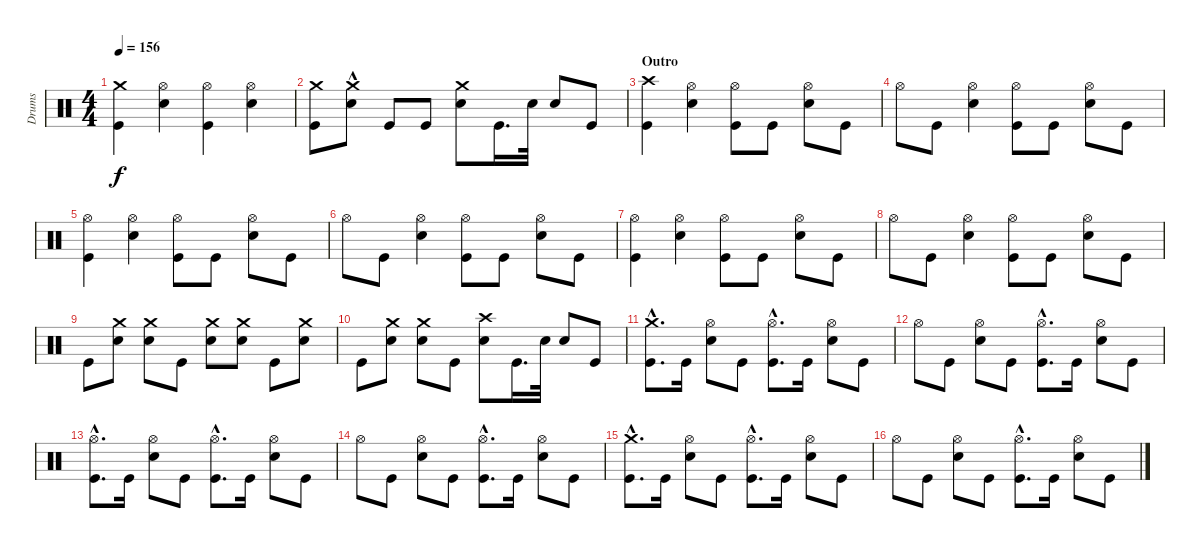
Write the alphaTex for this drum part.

\track ("Drums" "Drums") {instrument percussion}
\staff {score}
\articulation defaults
\ts (4 4)
\tempo 156
\clef neutral
\ks c
("Kick (hit)" "Crash medium (hit)").4{dy f} ("Electric Snare (hit)" "Hi-Hat (open)").4 ("Kick (hit)" "Hi-Hat (open)").4 ("Electric Snare (hit)" "Hi-Hat (open)").4 |
("Kick (hit)" "Crash medium (hit)").8 ("Electric Snare (hit)" "Crash medium (hit)"{hac}).8 "Kick (hit)".8 "Kick (hit)".8 ("Electric Snare (hit)" "Crash medium (hit)").8 "Kick (hit)".16{d} "Electric Snare (hit)".32 "Electric Snare (hit)".8 "Kick (hit)".8 |
\section ("" "Outro")
("Kick (hit)" "Crash high (hit)").4 ("Electric Snare (hit)" "Hi-Hat (open)").4 ("Kick (hit)" "Hi-Hat (open)").8 "Kick (hit)".8 ("Electric Snare (hit)" "Hi-Hat (open)").8 "Kick (hit)".8 |
"Hi-Hat (open)".8 "Kick (hit)".8 ("Electric Snare (hit)" "Hi-Hat (open)").4 ("Kick (hit)" "Hi-Hat (open)").8 "Kick (hit)".8 ("Electric Snare (hit)" "Hi-Hat (open)").8 "Kick (hit)".8 |
("Kick (hit)" "Hi-Hat (open)").4 ("Electric Snare (hit)" "Hi-Hat (open)").4 ("Kick (hit)" "Hi-Hat (open)").8 "Kick (hit)".8 ("Electric Snare (hit)" "Hi-Hat (open)").8 "Kick (hit)".8 |
"Hi-Hat (open)".8 "Kick (hit)".8 ("Electric Snare (hit)" "Hi-Hat (open)").4 ("Kick (hit)" "Hi-Hat (open)").8 "Kick (hit)".8 ("Electric Snare (hit)" "Hi-Hat (open)").8 "Kick (hit)".8 |
("Kick (hit)" "Hi-Hat (open)").4 ("Electric Snare (hit)" "Hi-Hat (open)").4 ("Kick (hit)" "Hi-Hat (open)").8 "Kick (hit)".8 ("Electric Snare (hit)" "Hi-Hat (open)").8 "Kick (hit)".8 |
"Hi-Hat (open)".8 "Kick (hit)".8 ("Electric Snare (hit)" "Hi-Hat (open)").4 ("Kick (hit)" "Hi-Hat (open)").8 "Kick (hit)".8 ("Electric Snare (hit)" "Hi-Hat (open)").8 "Kick (hit)".8 |
"Kick (hit)".8 ("Crash medium (hit)" "Electric Snare (hit)").8 ("Crash medium (hit)" "Electric Snare (hit)").8 "Kick (hit)".8 ("Crash medium (hit)" "Electric Snare (hit)").8 ("Crash medium (hit)" "Electric Snare (hit)").8 "Kick (hit)".8 ("Crash medium (hit)" "Electric Snare (hit)").8 |
"Kick (hit)".8 ("Crash medium (hit)" "Electric Snare (hit)").8 ("Crash medium (hit)" "Electric Snare (hit)").8 "Kick (hit)".8 ("Crash high (hit)" "Electric Snare (hit)").8 "Kick (hit)".16{d} "Electric Snare (hit)".32 "Electric Snare (hit)".8 "Kick (hit)".8 |
("Kick (hit)"{hac} "Crash medium (hit)").8{d} "Kick (hit)".16 ("Electric Snare (hit)" "Hi-Hat (open)").8 "Kick (hit)".8 ("Kick (hit)"{hac} "Hi-Hat (open)").8{d} "Kick (hit)".16 ("Electric Snare (hit)" "Hi-Hat (open)").8 "Kick (hit)".8 |
"Hi-Hat (open)".8 "Kick (hit)".8 ("Electric Snare (hit)" "Hi-Hat (open)").8 "Kick (hit)".8 ("Kick (hit)"{hac} "Hi-Hat (open)").8{d} "Kick (hit)".16 ("Electric Snare (hit)" "Hi-Hat (open)").8 "Kick (hit)".8 |
("Hi-Hat (open)" "Kick (hit)"{hac}).8{d} "Kick (hit)".16 ("Hi-Hat (open)" "Electric Snare (hit)").8 "Kick (hit)".8 ("Kick (hit)"{hac} "Hi-Hat (open)").8{d} "Kick (hit)".16 ("Electric Snare (hit)" "Hi-Hat (open)").8 "Kick (hit)".8 |
"Hi-Hat (open)".8 "Kick (hit)".8 ("Hi-Hat (open)" "Electric Snare (hit)").8 "Kick (hit)".8 ("Hi-Hat (open)" "Kick (hit)"{hac}).8{d} "Kick (hit)".16 ("Hi-Hat (open)" "Electric Snare (hit)").8 "Kick (hit)".8 |
("Kick (hit)"{hac} "Crash medium (hit)").8{d} "Kick (hit)".16 ("Electric Snare (hit)" "Hi-Hat (open)").8 "Kick (hit)".8 ("Kick (hit)"{hac} "Hi-Hat (open)").8{d} "Kick (hit)".16 ("Electric Snare (hit)" "Hi-Hat (open)").8 "Kick (hit)".8 |
"Hi-Hat (open)".8 "Kick (hit)".8 ("Electric Snare (hit)" "Hi-Hat (open)").8 "Kick (hit)".8 ("Kick (hit)"{hac} "Hi-Hat (open)").8{d} "Kick (hit)".16 ("Electric Snare (hit)" "Hi-Hat (open)").8 "Kick (hit)".8
